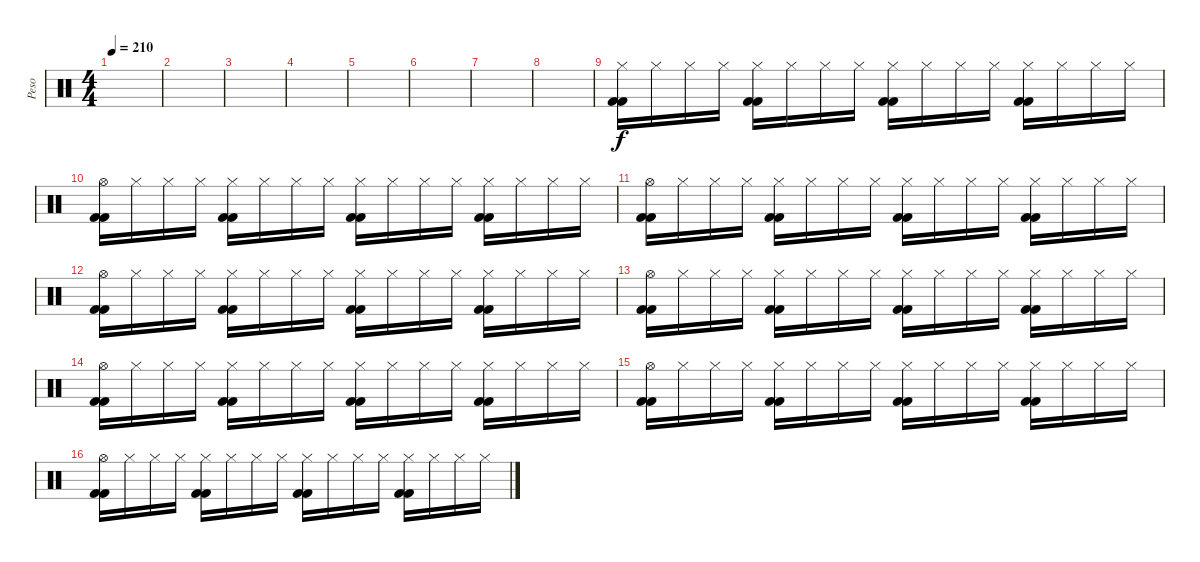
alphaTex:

\track ("Peso" "Peso") {instrument percussion}
\staff {score}
\articulation defaults
\ts (4 4)
\tempo 210
\clef neutral
\ks c
|
|
|
|
|
|
|
|
("Hi-Hat (closed)" "Kick (hit) 2" "Kick (hit) 2").16 "Hi-Hat (closed)".16 "Hi-Hat (closed)".16 "Hi-Hat (closed)".16 ("Hi-Hat (closed)" "Kick (hit) 2" "Kick (hit) 2").16 "Hi-Hat (closed)".16 "Hi-Hat (closed)".16 "Hi-Hat (closed)".16 ("Hi-Hat (closed)" "Kick (hit) 2" "Kick (hit) 2").16 "Hi-Hat (closed)".16 "Hi-Hat (closed)".16 "Hi-Hat (closed)".16 ("Hi-Hat (closed)" "Kick (hit) 2" "Kick (hit) 2").16 "Hi-Hat (closed)".16 "Hi-Hat (closed)".16 "Hi-Hat (closed)".16 |
("Hi-Hat (open)" "Kick (hit) 2" "Kick (hit) 2").16 "Hi-Hat (closed)".16 "Hi-Hat (closed)".16 "Hi-Hat (closed)".16 ("Hi-Hat (closed)" "Kick (hit) 2" "Kick (hit) 2").16 "Hi-Hat (closed)".16 "Hi-Hat (closed)".16 "Hi-Hat (closed)".16 ("Hi-Hat (closed)" "Kick (hit) 2" "Kick (hit) 2").16 "Hi-Hat (closed)".16 "Hi-Hat (closed)".16 "Hi-Hat (closed)".16 ("Hi-Hat (closed)" "Kick (hit) 2" "Kick (hit) 2").16 "Hi-Hat (closed)".16 "Hi-Hat (closed)".16 "Hi-Hat (closed)".16 |
("Hi-Hat (open)" "Kick (hit) 2" "Kick (hit) 2").16 "Hi-Hat (closed)".16 "Hi-Hat (closed)".16 "Hi-Hat (closed)".16 ("Hi-Hat (closed)" "Kick (hit) 2" "Kick (hit) 2").16 "Hi-Hat (closed)".16 "Hi-Hat (closed)".16 "Hi-Hat (closed)".16 ("Hi-Hat (closed)" "Kick (hit) 2" "Kick (hit) 2").16 "Hi-Hat (closed)".16 "Hi-Hat (closed)".16 "Hi-Hat (closed)".16 ("Hi-Hat (closed)" "Kick (hit) 2" "Kick (hit) 2").16 "Hi-Hat (closed)".16 "Hi-Hat (closed)".16 "Hi-Hat (closed)".16 |
("Hi-Hat (open)" "Kick (hit) 2" "Kick (hit) 2").16 "Hi-Hat (closed)".16 "Hi-Hat (closed)".16 "Hi-Hat (closed)".16 ("Hi-Hat (closed)" "Kick (hit) 2" "Kick (hit) 2").16 "Hi-Hat (closed)".16 "Hi-Hat (closed)".16 "Hi-Hat (closed)".16 ("Hi-Hat (closed)" "Kick (hit) 2" "Kick (hit) 2").16 "Hi-Hat (closed)".16 "Hi-Hat (closed)".16 "Hi-Hat (closed)".16 ("Hi-Hat (closed)" "Kick (hit) 2" "Kick (hit) 2").16 "Hi-Hat (closed)".16 "Hi-Hat (closed)".16 "Hi-Hat (closed)".16 |
("Hi-Hat (open)" "Kick (hit) 2" "Kick (hit) 2").16 "Hi-Hat (closed)".16 "Hi-Hat (closed)".16 "Hi-Hat (closed)".16 ("Hi-Hat (closed)" "Kick (hit) 2" "Kick (hit) 2").16 "Hi-Hat (closed)".16 "Hi-Hat (closed)".16 "Hi-Hat (closed)".16 ("Hi-Hat (closed)" "Kick (hit) 2" "Kick (hit) 2").16 "Hi-Hat (closed)".16 "Hi-Hat (closed)".16 "Hi-Hat (closed)".16 ("Hi-Hat (closed)" "Kick (hit) 2" "Kick (hit) 2").16 "Hi-Hat (closed)".16 "Hi-Hat (closed)".16 "Hi-Hat (closed)".16 |
("Hi-Hat (open)" "Kick (hit) 2" "Kick (hit) 2").16 "Hi-Hat (closed)".16 "Hi-Hat (closed)".16 "Hi-Hat (closed)".16 ("Hi-Hat (closed)" "Kick (hit) 2" "Kick (hit) 2").16 "Hi-Hat (closed)".16 "Hi-Hat (closed)".16 "Hi-Hat (closed)".16 ("Hi-Hat (closed)" "Kick (hit) 2" "Kick (hit) 2").16 "Hi-Hat (closed)".16 "Hi-Hat (closed)".16 "Hi-Hat (closed)".16 ("Hi-Hat (closed)" "Kick (hit) 2" "Kick (hit) 2").16 "Hi-Hat (closed)".16 "Hi-Hat (closed)".16 "Hi-Hat (closed)".16 |
("Hi-Hat (open)" "Kick (hit) 2" "Kick (hit) 2").16 "Hi-Hat (closed)".16 "Hi-Hat (closed)".16 "Hi-Hat (closed)".16 ("Hi-Hat (closed)" "Kick (hit) 2" "Kick (hit) 2").16 "Hi-Hat (closed)".16 "Hi-Hat (closed)".16 "Hi-Hat (closed)".16 ("Hi-Hat (closed)" "Kick (hit) 2" "Kick (hit) 2").16 "Hi-Hat (closed)".16 "Hi-Hat (closed)".16 "Hi-Hat (closed)".16 ("Hi-Hat (closed)" "Kick (hit) 2" "Kick (hit) 2").16 "Hi-Hat (closed)".16 "Hi-Hat (closed)".16 "Hi-Hat (closed)".16 |
("Hi-Hat (open)" "Kick (hit) 2" "Kick (hit) 2").16 "Hi-Hat (closed)".16 "Hi-Hat (closed)".16 "Hi-Hat (closed)".16 ("Hi-Hat (closed)" "Kick (hit) 2" "Kick (hit) 2").16 "Hi-Hat (closed)".16 "Hi-Hat (closed)".16 "Hi-Hat (closed)".16 ("Hi-Hat (closed)" "Kick (hit) 2" "Kick (hit) 2").16 "Hi-Hat (closed)".16 "Hi-Hat (closed)".16 "Hi-Hat (closed)".16 ("Hi-Hat (closed)" "Kick (hit) 2" "Kick (hit) 2").16 "Hi-Hat (closed)".16 "Hi-Hat (closed)".16 "Hi-Hat (closed)".16
